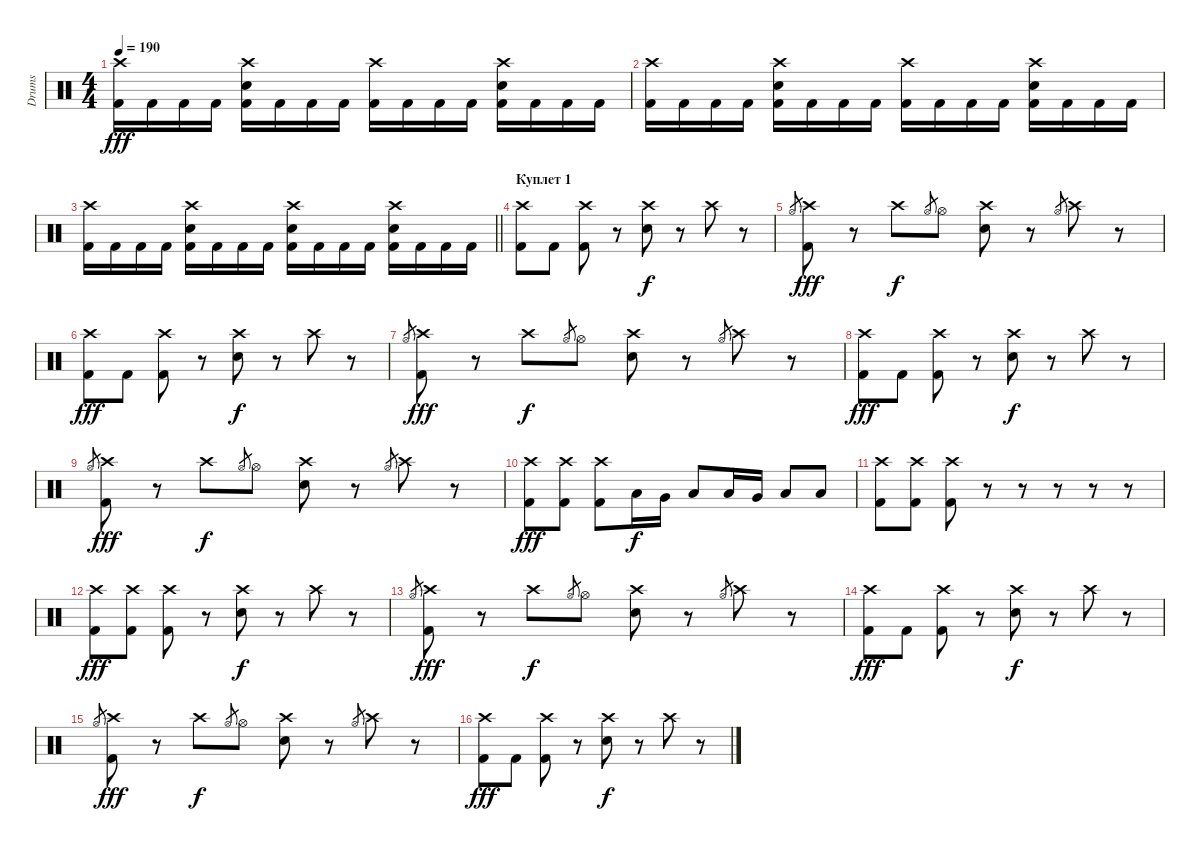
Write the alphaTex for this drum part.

\track ("Drums" "Drums") {instrument percussion}
\staff {score}
\articulation defaults
\ts (4 4)
\tempo 190
\clef neutral
\ks c
("Crash high (hit)" "Kick (hit) 2").16{dy fff} "Kick (hit) 2".16 "Kick (hit) 2".16 "Kick (hit) 2".16 ("Crash high (hit)" "Electric Snare (hit)" "Kick (hit) 2").16 "Kick (hit) 2".16 "Kick (hit) 2".16 "Kick (hit) 2".16 ("Crash high (hit)" "Kick (hit) 2").16 "Kick (hit) 2".16 "Kick (hit) 2".16 "Kick (hit) 2".16 ("Crash high (hit)" "Electric Snare (hit)" "Kick (hit) 2").16 "Kick (hit) 2".16 "Kick (hit) 2".16 "Kick (hit) 2".16 |
("Crash high (hit)" "Kick (hit) 2").16 "Kick (hit) 2".16 "Kick (hit) 2".16 "Kick (hit) 2".16 ("Crash high (hit)" "Electric Snare (hit)" "Kick (hit) 2").16 "Kick (hit) 2".16 "Kick (hit) 2".16 "Kick (hit) 2".16 ("Crash high (hit)" "Kick (hit) 2").16 "Kick (hit) 2".16 "Kick (hit) 2".16 "Kick (hit) 2".16 ("Crash high (hit)" "Electric Snare (hit)" "Kick (hit) 2").16 "Kick (hit) 2".16 "Kick (hit) 2".16 "Kick (hit) 2".16 |
\barLineRight lightlight
("Crash high (hit)" "Kick (hit) 2").16 "Kick (hit) 2".16 "Kick (hit) 2".16 "Kick (hit) 2".16 ("Crash high (hit)" "Electric Snare (hit)" "Kick (hit) 2").16 "Kick (hit) 2".16 "Kick (hit) 2".16 "Kick (hit) 2".16 ("Crash high (hit)" "Electric Snare (hit)" "Kick (hit) 2").16 "Kick (hit) 2".16 "Kick (hit) 2".16 "Kick (hit) 2".16 ("Crash high (hit)" "Electric Snare (hit)" "Kick (hit) 2").16 "Kick (hit) 2".16 "Kick (hit) 2".16 "Kick (hit) 2".16 |
\section ("" "Куплет 1")
("Crash high (hit)" "Kick (hit) 2").8 "Kick (hit) 2".8 ("Crash high (hit)" "Kick (hit) 2").8 r.8 ("Crash high (hit)" "Electric Snare (hit)").8{dy f} r.8 "Crash high (hit)".8 r.8 |
"Hi-Hat (open)".8{gr} ("Crash high (hit)" "Kick (hit) 2").8{dy fff} r.8 "Crash high (hit)".8{dy f} "Hi-Hat (open)".8{gr} "Hi-Hat (open)".8 ("Crash high (hit)" "Electric Snare (hit)").8 r.8 "Hi-Hat (open)".8{gr} "Crash high (hit)".8 r.8 |
("Crash high (hit)" "Kick (hit) 2").8{dy fff} "Kick (hit) 2".8 ("Crash high (hit)" "Kick (hit) 2").8 r.8 ("Crash high (hit)" "Electric Snare (hit)").8{dy f} r.8 "Crash high (hit)".8 r.8 |
"Hi-Hat (open)".8{gr} ("Crash high (hit)" "Kick (hit) 2").8{dy fff} r.8 "Crash high (hit)".8{dy f} "Hi-Hat (open)".8{gr} "Hi-Hat (open)".8 ("Crash high (hit)" "Electric Snare (hit)").8 r.8 "Hi-Hat (open)".8{gr} "Crash high (hit)".8 r.8 |
("Crash high (hit)" "Kick (hit) 2").8{dy fff} "Kick (hit) 2".8 ("Crash high (hit)" "Kick (hit) 2").8 r.8 ("Crash high (hit)" "Electric Snare (hit)").8{dy f} r.8 "Crash high (hit)".8 r.8 |
"Hi-Hat (open)".8{gr} ("Crash high (hit)" "Kick (hit) 2").8{dy fff} r.8 "Crash high (hit)".8{dy f} "Hi-Hat (open)".8{gr} "Hi-Hat (open)".8 ("Crash high (hit)" "Electric Snare (hit)").8 r.8 "Hi-Hat (open)".8{gr} "Crash high (hit)".8 r.8 |
("Crash high (hit)" "Kick (hit) 2").8{dy fff} ("Crash high (hit)" "Kick (hit) 2").8 ("Crash high (hit)" "Kick (hit) 2").8 "Low Tom (hit)".16{dy f} "Very Low Tom (hit)".16 "Low Floor Tom (hit)".8 "Low Tom (hit)".16 "Very Low Tom (hit)".16 "Low Floor Tom (hit)".8 "Low Floor Tom (hit)".8 |
("Crash high (hit)" "Kick (hit) 2").8 ("Crash high (hit)" "Kick (hit) 2").8 ("Crash high (hit)" "Kick (hit) 2").8 r.8 r.8 r.8 r.8 r.8 |
("Crash high (hit)" "Kick (hit) 2").8{dy fff} ("Crash high (hit)" "Kick (hit) 2").8 ("Crash high (hit)" "Kick (hit) 2").8 r.8 ("Crash high (hit)" "Electric Snare (hit)").8{dy f} r.8 "Crash high (hit)".8 r.8 |
"Hi-Hat (open)".8{gr} ("Crash high (hit)" "Kick (hit) 2").8{dy fff} r.8 "Crash high (hit)".8{dy f} "Hi-Hat (open)".8{gr} "Hi-Hat (open)".8 ("Crash high (hit)" "Electric Snare (hit)").8 r.8 "Hi-Hat (open)".8{gr} "Crash high (hit)".8 r.8 |
("Crash high (hit)" "Kick (hit) 2").8{dy fff} "Kick (hit) 2".8 ("Crash high (hit)" "Kick (hit) 2").8 r.8 ("Crash high (hit)" "Electric Snare (hit)").8{dy f} r.8 "Crash high (hit)".8 r.8 |
"Hi-Hat (open)".8{gr} ("Crash high (hit)" "Kick (hit) 2").8{dy fff} r.8 "Crash high (hit)".8{dy f} "Hi-Hat (open)".8{gr} "Hi-Hat (open)".8 ("Crash high (hit)" "Electric Snare (hit)").8 r.8 "Hi-Hat (open)".8{gr} "Crash high (hit)".8 r.8 |
("Crash high (hit)" "Kick (hit) 2").8{dy fff} "Kick (hit) 2".8 ("Crash high (hit)" "Kick (hit) 2").8 r.8 ("Crash high (hit)" "Electric Snare (hit)").8{dy f} r.8 "Crash high (hit)".8 r.8
